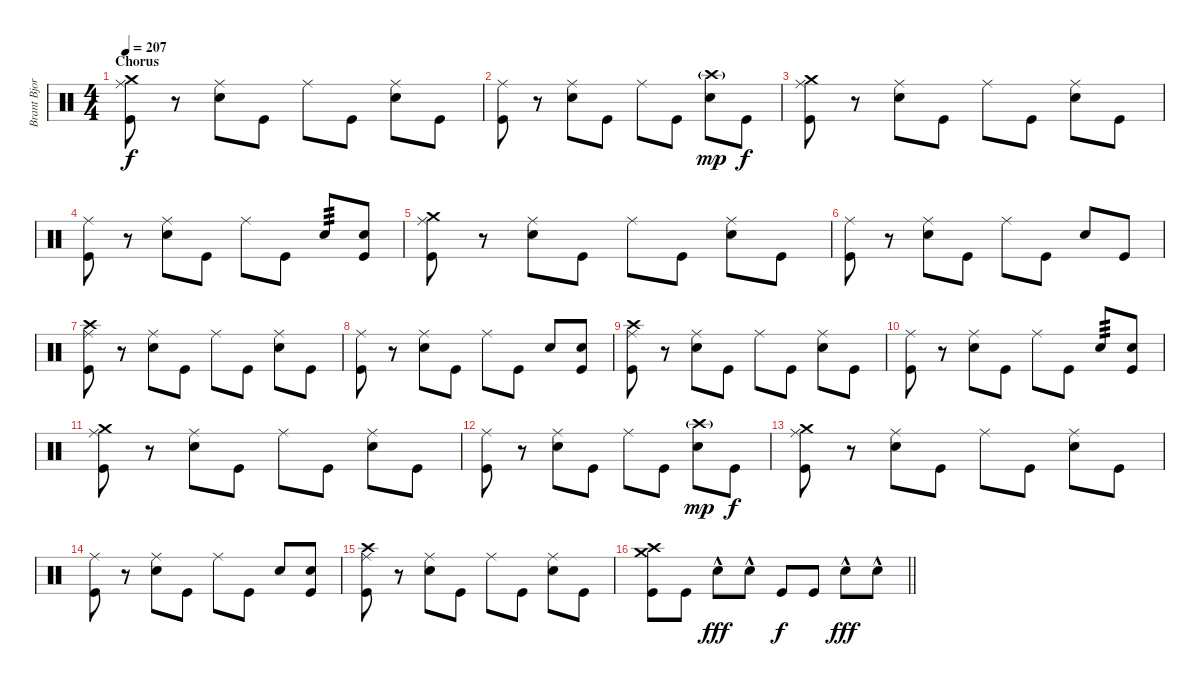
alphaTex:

\track ("Brant Bjork - Drums" "Brant Bjor") {instrument percussion}
\staff {score}
\articulation defaults
\ts (4 4)
\section ("" "Chorus")
\tempo 207
\clef neutral
\ks c
("Ride (middle)" "Crash medium (hit)" "Kick (hit)").8{dy f} r.8 ("Ride (middle)" "Snare (hit) 2").8 "Kick (hit)".8 "Ride (middle)".8 "Kick (hit)".8 ("Ride (middle)" "Snare (hit) 2").8 "Kick (hit)".8 |
("Ride (middle)" "Kick (hit)").8 r.8 ("Ride (middle)" "Snare (hit) 2").8 "Kick (hit)".8 "Ride (middle)".8 "Kick (hit)".8 ("Crash high (hit)"{g} "Snare (hit) 2").8{dy mp} "Kick (hit)".8{dy f} |
("Ride (middle)" "Crash medium (hit)" "Kick (hit)").8 r.8 ("Ride (middle)" "Snare (hit) 2").8 "Kick (hit)".8 "Ride (middle)".8 "Kick (hit)".8 ("Ride (middle)" "Snare (hit) 2").8 "Kick (hit)".8 |
("Ride (middle)" "Kick (hit)").8 r.8 ("Ride (middle)" "Snare (hit) 2").8 "Kick (hit)".8 "Ride (middle)".8 "Kick (hit)".8 "Snare (hit) 2".8{tp 3} ("Snare (hit) 2" "Kick (hit)").8 |
("Ride (middle)" "Crash medium (hit)" "Kick (hit)").8 r.8 ("Ride (middle)" "Snare (hit) 2").8 "Kick (hit)".8 "Ride (middle)".8 "Kick (hit)".8 ("Ride (middle)" "Snare (hit) 2").8 "Kick (hit)".8 |
("Ride (middle)" "Kick (hit)").8 r.8 ("Ride (middle)" "Snare (hit) 2").8 "Kick (hit)".8 "Ride (middle)".8 "Kick (hit)".8 "Snare (hit) 2".8 "Kick (hit)".8 |
("Ride (middle)" "Crash high (hit)" "Kick (hit)").8 r.8 ("Ride (middle)" "Snare (hit) 2").8 "Kick (hit)".8 "Ride (middle)".8 "Kick (hit)".8 ("Ride (middle)" "Snare (hit) 2").8 "Kick (hit)".8 |
("Ride (middle)" "Kick (hit)").8 r.8 ("Ride (middle)" "Snare (hit) 2").8 "Kick (hit)".8 "Ride (middle)".8 "Kick (hit)".8 "Snare (hit) 2".8 ("Snare (hit) 2" "Kick (hit)").8 |
("Ride (middle)" "Crash high (hit)" "Kick (hit)").8 r.8 ("Ride (middle)" "Snare (hit) 2").8 "Kick (hit)".8 "Ride (middle)".8 "Kick (hit)".8 ("Ride (middle)" "Snare (hit) 2").8 "Kick (hit)".8 |
("Ride (middle)" "Kick (hit)").8 r.8 ("Ride (middle)" "Snare (hit) 2").8 "Kick (hit)".8 "Ride (middle)".8 "Kick (hit)".8 "Snare (hit) 2".8{tp 3} ("Snare (hit) 2" "Kick (hit)").8 |
("Ride (middle)" "Crash medium (hit)" "Kick (hit)").8 r.8 ("Ride (middle)" "Snare (hit) 2").8 "Kick (hit)".8 "Ride (middle)".8 "Kick (hit)".8 ("Ride (middle)" "Snare (hit) 2").8 "Kick (hit)".8 |
("Ride (middle)" "Kick (hit)").8 r.8 ("Ride (middle)" "Snare (hit) 2").8 "Kick (hit)".8 "Ride (middle)".8 "Kick (hit)".8 ("Crash high (hit)"{g} "Snare (hit) 2").8{dy mp} "Kick (hit)".8{dy f} |
("Ride (middle)" "Crash medium (hit)" "Kick (hit)").8 r.8 ("Ride (middle)" "Snare (hit) 2").8 "Kick (hit)".8 "Ride (middle)".8 "Kick (hit)".8 ("Ride (middle)" "Snare (hit) 2").8 "Kick (hit)".8 |
("Ride (middle)" "Kick (hit)").8 r.8 ("Ride (middle)" "Snare (hit) 2").8 "Kick (hit)".8 "Ride (middle)".8 "Kick (hit)".8 "Snare (hit) 2".8 ("Snare (hit) 2" "Kick (hit)").8 |
("Ride (middle)" "Crash high (hit)" "Kick (hit)").8 r.8 ("Ride (middle)" "Snare (hit) 2").8 "Kick (hit)".8 "Ride (middle)".8 "Kick (hit)".8 ("Ride (middle)" "Snare (hit) 2").8 "Kick (hit)".8 |
\barLineRight lightlight
("Crash high (hit)" "Crash medium (hit)" "Kick (hit)").8 "Kick (hit)".8 "Snare (hit) 2"{hac}.8{dy fff} "Snare (hit) 2"{hac}.8 "Kick (hit)".8{dy f} "Kick (hit)".8 "Snare (hit) 2"{hac}.8{dy fff} "Snare (hit) 2"{hac}.8
